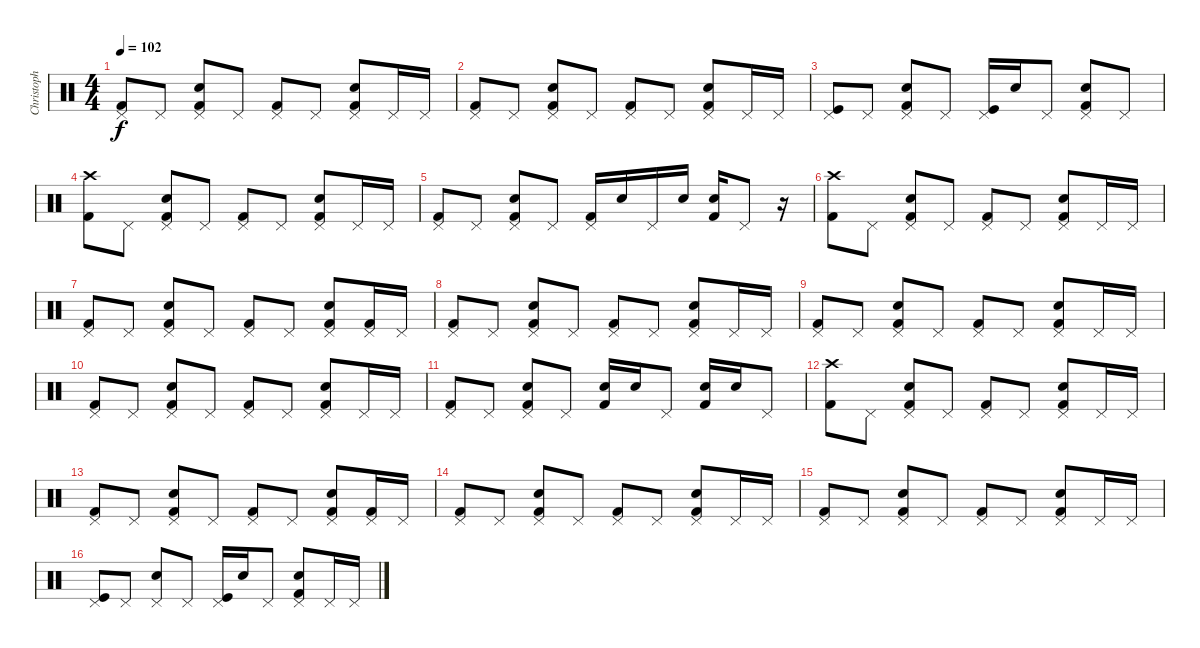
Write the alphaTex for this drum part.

\track ("Christoph Schneider" "Christoph ") {instrument percussion}
\staff {score}
\articulation defaults
\ts (4 4)
\tempo 102
\clef neutral
\ks c
("Pedal Hi-Hat (hit)" "Kick (hit) 2").8{dy f} "Pedal Hi-Hat (hit)".8 ("Pedal Hi-Hat (hit)" "Snare (hit) 2" "Kick (hit) 2").8 "Pedal Hi-Hat (hit)".8 ("Pedal Hi-Hat (hit)" "Kick (hit) 2").8 "Pedal Hi-Hat (hit)".8 ("Pedal Hi-Hat (hit)" "Snare (hit) 2" "Kick (hit) 2").8 "Pedal Hi-Hat (hit)".16 "Pedal Hi-Hat (hit)".16 |
("Pedal Hi-Hat (hit)" "Kick (hit) 2").8 "Pedal Hi-Hat (hit)".8 ("Pedal Hi-Hat (hit)" "Snare (hit) 2" "Kick (hit) 2").8 "Pedal Hi-Hat (hit)".8 ("Pedal Hi-Hat (hit)" "Kick (hit) 2").8 "Pedal Hi-Hat (hit)".8 ("Pedal Hi-Hat (hit)" "Snare (hit) 2" "Kick (hit) 2").8 "Pedal Hi-Hat (hit)".16 "Pedal Hi-Hat (hit)".16 |
("Pedal Hi-Hat (hit)" "Kick (hit)").8 "Pedal Hi-Hat (hit)".8 ("Pedal Hi-Hat (hit)" "Snare (hit) 2" "Kick (hit) 2").8 "Pedal Hi-Hat (hit)".8 ("Pedal Hi-Hat (hit)" "Kick (hit)").16 "Snare (hit) 2".16 "Pedal Hi-Hat (hit)".8 ("Pedal Hi-Hat (hit)" "Snare (hit) 2" "Kick (hit) 2").8 "Pedal Hi-Hat (hit)".8 |
("Crash high (hit)" "Kick (hit) 2").8 "Pedal Hi-Hat (hit)".8 ("Pedal Hi-Hat (hit)" "Snare (hit) 2" "Kick (hit) 2").8 "Pedal Hi-Hat (hit)".8 ("Pedal Hi-Hat (hit)" "Kick (hit) 2").8 "Pedal Hi-Hat (hit)".8 ("Pedal Hi-Hat (hit)" "Snare (hit) 2" "Kick (hit) 2").8 "Pedal Hi-Hat (hit)".16 "Pedal Hi-Hat (hit)".16 |
("Pedal Hi-Hat (hit)" "Kick (hit) 2").8 "Pedal Hi-Hat (hit)".8 ("Pedal Hi-Hat (hit)" "Snare (hit) 2" "Kick (hit) 2").8 "Pedal Hi-Hat (hit)".8 ("Pedal Hi-Hat (hit)" "Kick (hit) 2").16 "Snare (hit) 2".16 "Pedal Hi-Hat (hit)".16 "Snare (hit) 2".16 ("Snare (hit) 2" "Kick (hit) 2").16 "Pedal Hi-Hat (hit)".8 r.16 |
("Crash high (hit)" "Kick (hit) 2").8 "Pedal Hi-Hat (hit)".8 ("Pedal Hi-Hat (hit)" "Snare (hit) 2" "Kick (hit) 2").8 "Pedal Hi-Hat (hit)".8 ("Pedal Hi-Hat (hit)" "Kick (hit) 2").8 "Pedal Hi-Hat (hit)".8 ("Pedal Hi-Hat (hit)" "Snare (hit) 2" "Kick (hit) 2").8 "Pedal Hi-Hat (hit)".16 "Pedal Hi-Hat (hit)".16 |
("Pedal Hi-Hat (hit)" "Kick (hit) 2").8 "Pedal Hi-Hat (hit)".8 ("Pedal Hi-Hat (hit)" "Snare (hit) 2" "Kick (hit) 2").8 "Pedal Hi-Hat (hit)".8 ("Pedal Hi-Hat (hit)" "Kick (hit) 2").8 "Pedal Hi-Hat (hit)".8 ("Pedal Hi-Hat (hit)" "Snare (hit) 2" "Kick (hit) 2").8 ("Pedal Hi-Hat (hit)" "Kick (hit) 2").16 "Pedal Hi-Hat (hit)".16 |
("Pedal Hi-Hat (hit)" "Kick (hit) 2").8 "Pedal Hi-Hat (hit)".8 ("Pedal Hi-Hat (hit)" "Snare (hit) 2" "Kick (hit) 2").8 "Pedal Hi-Hat (hit)".8 ("Pedal Hi-Hat (hit)" "Kick (hit) 2").8 "Pedal Hi-Hat (hit)".8 ("Pedal Hi-Hat (hit)" "Snare (hit) 2" "Kick (hit) 2").8 "Pedal Hi-Hat (hit)".16 "Pedal Hi-Hat (hit)".16 |
("Pedal Hi-Hat (hit)" "Kick (hit) 2").8 "Pedal Hi-Hat (hit)".8 ("Pedal Hi-Hat (hit)" "Snare (hit) 2" "Kick (hit) 2").8 "Pedal Hi-Hat (hit)".8 ("Pedal Hi-Hat (hit)" "Kick (hit) 2").8 "Pedal Hi-Hat (hit)".8 ("Pedal Hi-Hat (hit)" "Snare (hit) 2" "Kick (hit) 2").8 "Pedal Hi-Hat (hit)".16 "Pedal Hi-Hat (hit)".16 |
("Pedal Hi-Hat (hit)" "Kick (hit) 2").8 "Pedal Hi-Hat (hit)".8 ("Pedal Hi-Hat (hit)" "Snare (hit) 2" "Kick (hit) 2").8 "Pedal Hi-Hat (hit)".8 ("Pedal Hi-Hat (hit)" "Kick (hit) 2").8 "Pedal Hi-Hat (hit)".8 ("Pedal Hi-Hat (hit)" "Snare (hit) 2" "Kick (hit) 2").8 "Pedal Hi-Hat (hit)".16 "Pedal Hi-Hat (hit)".16 |
("Pedal Hi-Hat (hit)" "Kick (hit) 2").8 "Pedal Hi-Hat (hit)".8 ("Pedal Hi-Hat (hit)" "Snare (hit) 2" "Kick (hit) 2").8 "Pedal Hi-Hat (hit)".8 ("Snare (hit) 2" "Kick (hit) 2").16 "Snare (hit) 2".16 "Pedal Hi-Hat (hit)".8 ("Snare (hit) 2" "Kick (hit) 2").16 "Snare (hit) 2".16 "Pedal Hi-Hat (hit)".8 |
("Crash high (hit)" "Kick (hit) 2").8 "Pedal Hi-Hat (hit)".8 ("Pedal Hi-Hat (hit)" "Snare (hit) 2" "Kick (hit) 2").8 "Pedal Hi-Hat (hit)".8 ("Pedal Hi-Hat (hit)" "Kick (hit) 2").8 "Pedal Hi-Hat (hit)".8 ("Pedal Hi-Hat (hit)" "Snare (hit) 2" "Kick (hit) 2").8 "Pedal Hi-Hat (hit)".16 "Pedal Hi-Hat (hit)".16 |
("Pedal Hi-Hat (hit)" "Kick (hit) 2").8 "Pedal Hi-Hat (hit)".8 ("Pedal Hi-Hat (hit)" "Snare (hit) 2" "Kick (hit) 2").8 "Pedal Hi-Hat (hit)".8 ("Pedal Hi-Hat (hit)" "Kick (hit) 2").8 "Pedal Hi-Hat (hit)".8 ("Pedal Hi-Hat (hit)" "Snare (hit) 2" "Kick (hit) 2").8 ("Pedal Hi-Hat (hit)" "Kick (hit) 2").16 "Pedal Hi-Hat (hit)".16 |
("Pedal Hi-Hat (hit)" "Kick (hit) 2").8 "Pedal Hi-Hat (hit)".8 ("Pedal Hi-Hat (hit)" "Snare (hit) 2" "Kick (hit) 2").8 "Pedal Hi-Hat (hit)".8 ("Pedal Hi-Hat (hit)" "Kick (hit) 2").8 "Pedal Hi-Hat (hit)".8 ("Pedal Hi-Hat (hit)" "Snare (hit) 2" "Kick (hit) 2").8 "Pedal Hi-Hat (hit)".16 "Pedal Hi-Hat (hit)".16 |
("Pedal Hi-Hat (hit)" "Kick (hit) 2").8 "Pedal Hi-Hat (hit)".8 ("Pedal Hi-Hat (hit)" "Snare (hit) 2" "Kick (hit) 2").8 "Pedal Hi-Hat (hit)".8 ("Pedal Hi-Hat (hit)" "Kick (hit) 2").8 "Pedal Hi-Hat (hit)".8 ("Pedal Hi-Hat (hit)" "Snare (hit) 2" "Kick (hit) 2").8 "Pedal Hi-Hat (hit)".16 "Pedal Hi-Hat (hit)".16 |
("Pedal Hi-Hat (hit)" "Kick (hit)").8 "Pedal Hi-Hat (hit)".8 ("Pedal Hi-Hat (hit)" "Snare (hit) 2").8 "Pedal Hi-Hat (hit)".8 ("Pedal Hi-Hat (hit)" "Kick (hit)").16 "Snare (hit) 2".16 "Pedal Hi-Hat (hit)".8 ("Pedal Hi-Hat (hit)" "Snare (hit) 2" "Kick (hit) 2").8 "Pedal Hi-Hat (hit)".16 "Pedal Hi-Hat (hit)".16
